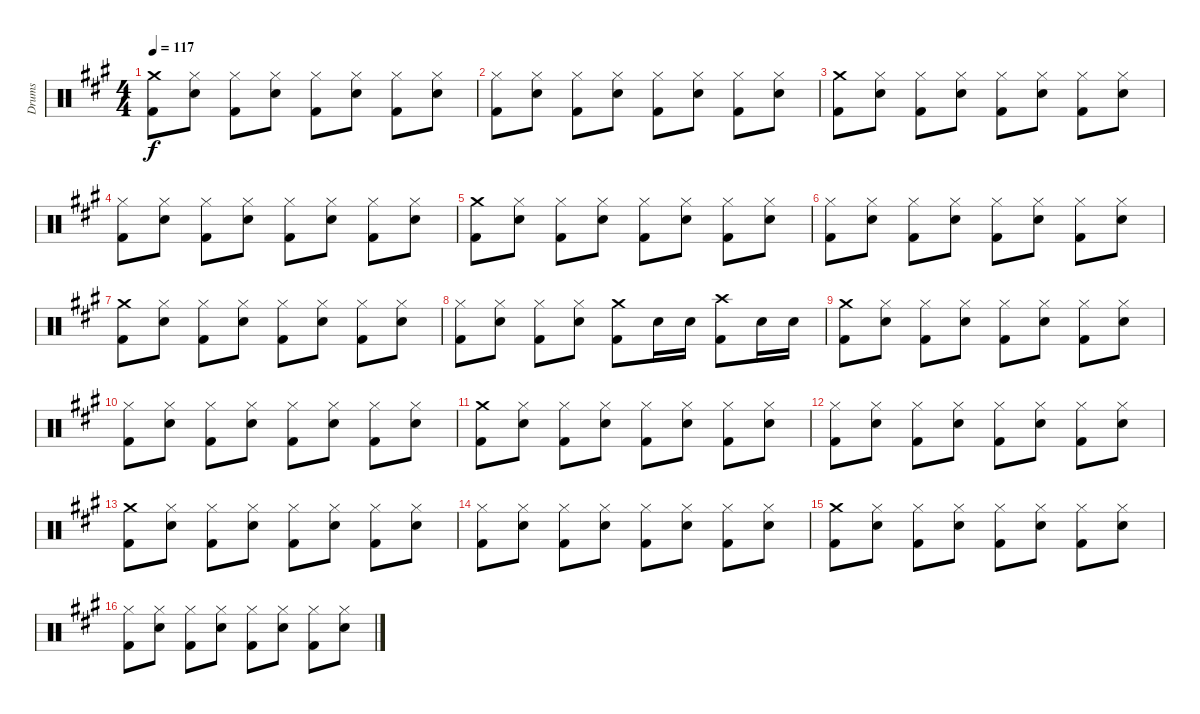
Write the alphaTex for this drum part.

\track ("Drums" "Drums") {instrument percussion}
\staff {score}
\articulation defaults
\ts (4 4)
\tempo 117
\clef neutral
\ks a
("Crash medium (hit)" "Kick (hit) 2").8{dy f} ("Hi-Hat (closed)" "Snare (hit) 2").8 ("Hi-Hat (closed)" "Kick (hit) 2").8 ("Hi-Hat (closed)" "Snare (hit) 2").8 ("Hi-Hat (closed)" "Kick (hit) 2").8 ("Hi-Hat (closed)" "Snare (hit) 2").8 ("Hi-Hat (closed)" "Kick (hit) 2").8 ("Hi-Hat (closed)" "Snare (hit) 2").8 |
("Hi-Hat (closed)" "Kick (hit) 2").8 ("Hi-Hat (closed)" "Snare (hit) 2").8 ("Hi-Hat (closed)" "Kick (hit) 2").8 ("Hi-Hat (closed)" "Snare (hit) 2").8 ("Hi-Hat (closed)" "Kick (hit) 2").8 ("Hi-Hat (closed)" "Snare (hit) 2").8 ("Hi-Hat (closed)" "Kick (hit) 2").8 ("Hi-Hat (closed)" "Snare (hit) 2").8 |
("Crash medium (hit)" "Kick (hit) 2").8 ("Hi-Hat (closed)" "Snare (hit) 2").8 ("Hi-Hat (closed)" "Kick (hit) 2").8 ("Hi-Hat (closed)" "Snare (hit) 2").8 ("Hi-Hat (closed)" "Kick (hit) 2").8 ("Hi-Hat (closed)" "Snare (hit) 2").8 ("Hi-Hat (closed)" "Kick (hit) 2").8 ("Hi-Hat (closed)" "Snare (hit) 2").8 |
("Hi-Hat (closed)" "Kick (hit) 2").8 ("Hi-Hat (closed)" "Snare (hit) 2").8 ("Hi-Hat (closed)" "Kick (hit) 2").8 ("Hi-Hat (closed)" "Snare (hit) 2").8 ("Hi-Hat (closed)" "Kick (hit) 2").8 ("Hi-Hat (closed)" "Snare (hit) 2").8 ("Hi-Hat (closed)" "Kick (hit) 2").8 ("Hi-Hat (closed)" "Snare (hit) 2").8 |
("Crash medium (hit)" "Kick (hit) 2").8 ("Hi-Hat (closed)" "Snare (hit) 2").8 ("Hi-Hat (closed)" "Kick (hit) 2").8 ("Hi-Hat (closed)" "Snare (hit) 2").8 ("Hi-Hat (closed)" "Kick (hit) 2").8 ("Hi-Hat (closed)" "Snare (hit) 2").8 ("Hi-Hat (closed)" "Kick (hit) 2").8 ("Hi-Hat (closed)" "Snare (hit) 2").8 |
("Hi-Hat (closed)" "Kick (hit) 2").8 ("Hi-Hat (closed)" "Snare (hit) 2").8 ("Hi-Hat (closed)" "Kick (hit) 2").8 ("Hi-Hat (closed)" "Snare (hit) 2").8 ("Hi-Hat (closed)" "Kick (hit) 2").8 ("Hi-Hat (closed)" "Snare (hit) 2").8 ("Hi-Hat (closed)" "Kick (hit) 2").8 ("Hi-Hat (closed)" "Snare (hit) 2").8 |
("Crash medium (hit)" "Kick (hit) 2").8 ("Hi-Hat (closed)" "Snare (hit) 2").8 ("Hi-Hat (closed)" "Kick (hit) 2").8 ("Hi-Hat (closed)" "Snare (hit) 2").8 ("Hi-Hat (closed)" "Kick (hit) 2").8 ("Hi-Hat (closed)" "Snare (hit) 2").8 ("Hi-Hat (closed)" "Kick (hit) 2").8 ("Hi-Hat (closed)" "Snare (hit) 2").8 |
("Hi-Hat (closed)" "Kick (hit) 2").8 ("Hi-Hat (closed)" "Snare (hit) 2").8 ("Hi-Hat (closed)" "Kick (hit) 2").8 ("Hi-Hat (closed)" "Snare (hit) 2").8 ("Crash medium (hit)" "Kick (hit) 2").8 "Snare (hit) 2".16 "Snare (hit) 2".16 ("Crash high (hit)" "Kick (hit) 2").8 "Snare (hit) 2".16 "Snare (hit) 2".16 |
("Crash medium (hit)" "Kick (hit) 2").8 ("Hi-Hat (closed)" "Snare (hit) 2").8 ("Hi-Hat (closed)" "Kick (hit) 2").8 ("Hi-Hat (closed)" "Snare (hit) 2").8 ("Hi-Hat (closed)" "Kick (hit) 2").8 ("Hi-Hat (closed)" "Snare (hit) 2").8 ("Hi-Hat (closed)" "Kick (hit) 2").8 ("Hi-Hat (closed)" "Snare (hit) 2").8 |
("Hi-Hat (closed)" "Kick (hit) 2").8 ("Hi-Hat (closed)" "Snare (hit) 2").8 ("Hi-Hat (closed)" "Kick (hit) 2").8 ("Hi-Hat (closed)" "Snare (hit) 2").8 ("Hi-Hat (closed)" "Kick (hit) 2").8 ("Hi-Hat (closed)" "Snare (hit) 2").8 ("Hi-Hat (closed)" "Kick (hit) 2").8 ("Hi-Hat (closed)" "Snare (hit) 2").8 |
("Crash medium (hit)" "Kick (hit) 2").8 ("Hi-Hat (closed)" "Snare (hit) 2").8 ("Hi-Hat (closed)" "Kick (hit) 2").8 ("Hi-Hat (closed)" "Snare (hit) 2").8 ("Hi-Hat (closed)" "Kick (hit) 2").8 ("Hi-Hat (closed)" "Snare (hit) 2").8 ("Hi-Hat (closed)" "Kick (hit) 2").8 ("Hi-Hat (closed)" "Snare (hit) 2").8 |
("Hi-Hat (closed)" "Kick (hit) 2").8 ("Hi-Hat (closed)" "Snare (hit) 2").8 ("Hi-Hat (closed)" "Kick (hit) 2").8 ("Hi-Hat (closed)" "Snare (hit) 2").8 ("Hi-Hat (closed)" "Kick (hit) 2").8 ("Hi-Hat (closed)" "Snare (hit) 2").8 ("Hi-Hat (closed)" "Kick (hit) 2").8 ("Hi-Hat (closed)" "Snare (hit) 2").8 |
("Crash medium (hit)" "Kick (hit) 2").8 ("Hi-Hat (closed)" "Snare (hit) 2").8 ("Hi-Hat (closed)" "Kick (hit) 2").8 ("Hi-Hat (closed)" "Snare (hit) 2").8 ("Hi-Hat (closed)" "Kick (hit) 2").8 ("Hi-Hat (closed)" "Snare (hit) 2").8 ("Hi-Hat (closed)" "Kick (hit) 2").8 ("Hi-Hat (closed)" "Snare (hit) 2").8 |
("Hi-Hat (closed)" "Kick (hit) 2").8 ("Hi-Hat (closed)" "Snare (hit) 2").8 ("Hi-Hat (closed)" "Kick (hit) 2").8 ("Hi-Hat (closed)" "Snare (hit) 2").8 ("Hi-Hat (closed)" "Kick (hit) 2").8 ("Hi-Hat (closed)" "Snare (hit) 2").8 ("Hi-Hat (closed)" "Kick (hit) 2").8 ("Hi-Hat (closed)" "Snare (hit) 2").8 |
("Crash medium (hit)" "Kick (hit) 2").8 ("Hi-Hat (closed)" "Snare (hit) 2").8 ("Hi-Hat (closed)" "Kick (hit) 2").8 ("Hi-Hat (closed)" "Snare (hit) 2").8 ("Hi-Hat (closed)" "Kick (hit) 2").8 ("Hi-Hat (closed)" "Snare (hit) 2").8 ("Hi-Hat (closed)" "Kick (hit) 2").8 ("Hi-Hat (closed)" "Snare (hit) 2").8 |
("Hi-Hat (closed)" "Kick (hit) 2").8 ("Hi-Hat (closed)" "Snare (hit) 2").8 ("Hi-Hat (closed)" "Kick (hit) 2").8 ("Hi-Hat (closed)" "Snare (hit) 2").8 ("Hi-Hat (closed)" "Kick (hit) 2").8 ("Hi-Hat (closed)" "Snare (hit) 2").8 ("Hi-Hat (closed)" "Kick (hit) 2").8 ("Hi-Hat (closed)" "Snare (hit) 2").8
